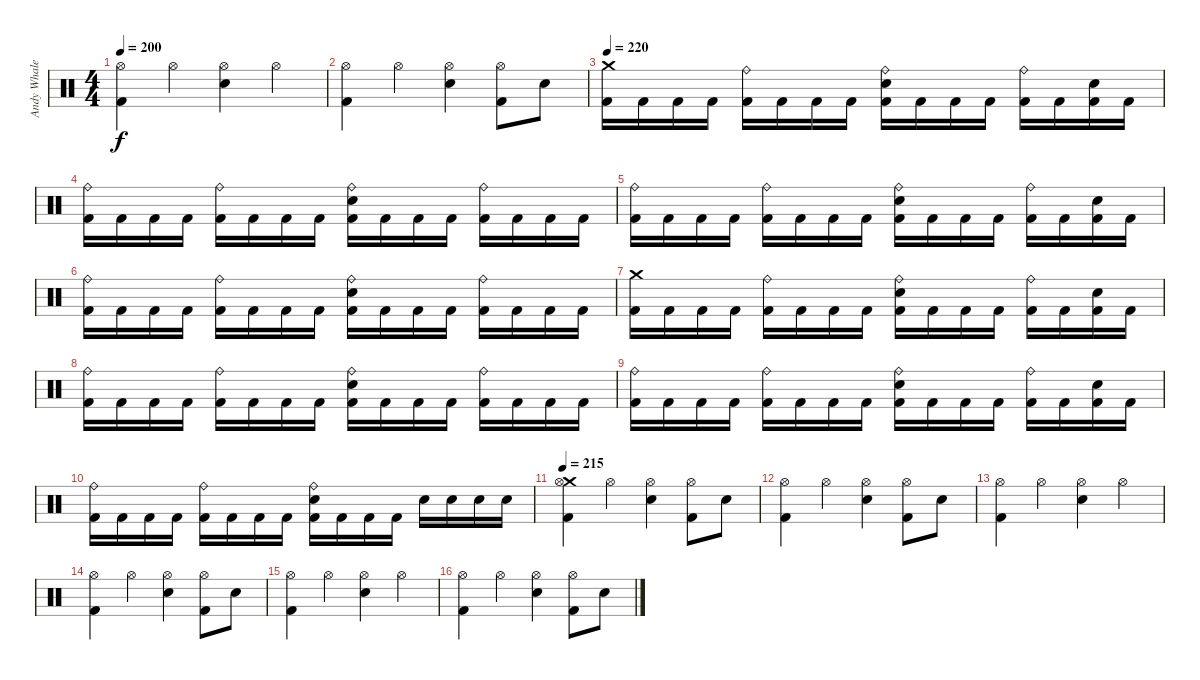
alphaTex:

\track ("Andy Whale" "Andy Whale") {instrument percussion}
\staff {score}
\articulation defaults
\ts (4 4)
\tempo 200
\clef neutral
\ks c
("Hi-Hat (open)" "Kick (hit) 2").4{dy f} "Hi-Hat (open)".4 ("Hi-Hat (open)" "Electric Snare (hit)").4 "Hi-Hat (open)".4 |
("Hi-Hat (open)" "Kick (hit) 2").4 "Hi-Hat (open)".4 ("Hi-Hat (open)" "Electric Snare (hit)").4 ("Hi-Hat (open)" "Kick (hit) 2").8 "Electric Snare (hit)".8 |
\tempo 220
("Crash medium (hit)" "Kick (hit) 2").16 "Kick (hit) 2".16 "Kick (hit) 2".16 "Kick (hit) 2".16 ("Ride (bell)" "Kick (hit) 2").16 "Kick (hit) 2".16 "Kick (hit) 2".16 "Kick (hit) 2".16 ("Ride (bell)" "Electric Snare (hit)" "Kick (hit) 2").16 "Kick (hit) 2".16 "Kick (hit) 2".16 "Kick (hit) 2".16 ("Ride (bell)" "Kick (hit) 2").16 "Kick (hit) 2".16 ("Electric Snare (hit)" "Kick (hit) 2").16 "Kick (hit) 2".16 |
("Ride (bell)" "Kick (hit) 2").16 "Kick (hit) 2".16 "Kick (hit) 2".16 "Kick (hit) 2".16 ("Ride (bell)" "Kick (hit) 2").16 "Kick (hit) 2".16 "Kick (hit) 2".16 "Kick (hit) 2".16 ("Ride (bell)" "Electric Snare (hit)" "Kick (hit) 2").16 "Kick (hit) 2".16 "Kick (hit) 2".16 "Kick (hit) 2".16 ("Ride (bell)" "Kick (hit) 2").16 "Kick (hit) 2".16 "Kick (hit) 2".16 "Kick (hit) 2".16 |
("Ride (bell)" "Kick (hit) 2").16 "Kick (hit) 2".16 "Kick (hit) 2".16 "Kick (hit) 2".16 ("Ride (bell)" "Kick (hit) 2").16 "Kick (hit) 2".16 "Kick (hit) 2".16 "Kick (hit) 2".16 ("Ride (bell)" "Electric Snare (hit)" "Kick (hit) 2").16 "Kick (hit) 2".16 "Kick (hit) 2".16 "Kick (hit) 2".16 ("Ride (bell)" "Kick (hit) 2").16 "Kick (hit) 2".16 ("Electric Snare (hit)" "Kick (hit) 2").16 "Kick (hit) 2".16 |
("Ride (bell)" "Kick (hit) 2").16 "Kick (hit) 2".16 "Kick (hit) 2".16 "Kick (hit) 2".16 ("Ride (bell)" "Kick (hit) 2").16 "Kick (hit) 2".16 "Kick (hit) 2".16 "Kick (hit) 2".16 ("Ride (bell)" "Electric Snare (hit)" "Kick (hit) 2").16 "Kick (hit) 2".16 "Kick (hit) 2".16 "Kick (hit) 2".16 ("Ride (bell)" "Kick (hit) 2").16 "Kick (hit) 2".16 "Kick (hit) 2".16 "Kick (hit) 2".16 |
("Crash medium (hit)" "Kick (hit) 2").16 "Kick (hit) 2".16 "Kick (hit) 2".16 "Kick (hit) 2".16 ("Ride (bell)" "Kick (hit) 2").16 "Kick (hit) 2".16 "Kick (hit) 2".16 "Kick (hit) 2".16 ("Ride (bell)" "Electric Snare (hit)" "Kick (hit) 2").16 "Kick (hit) 2".16 "Kick (hit) 2".16 "Kick (hit) 2".16 ("Ride (bell)" "Kick (hit) 2").16 "Kick (hit) 2".16 ("Electric Snare (hit)" "Kick (hit) 2").16 "Kick (hit) 2".16 |
("Ride (bell)" "Kick (hit) 2").16 "Kick (hit) 2".16 "Kick (hit) 2".16 "Kick (hit) 2".16 ("Ride (bell)" "Kick (hit) 2").16 "Kick (hit) 2".16 "Kick (hit) 2".16 "Kick (hit) 2".16 ("Ride (bell)" "Electric Snare (hit)" "Kick (hit) 2").16 "Kick (hit) 2".16 "Kick (hit) 2".16 "Kick (hit) 2".16 ("Ride (bell)" "Kick (hit) 2").16 "Kick (hit) 2".16 "Kick (hit) 2".16 "Kick (hit) 2".16 |
("Ride (bell)" "Kick (hit) 2").16 "Kick (hit) 2".16 "Kick (hit) 2".16 "Kick (hit) 2".16 ("Ride (bell)" "Kick (hit) 2").16 "Kick (hit) 2".16 "Kick (hit) 2".16 "Kick (hit) 2".16 ("Ride (bell)" "Electric Snare (hit)" "Kick (hit) 2").16 "Kick (hit) 2".16 "Kick (hit) 2".16 "Kick (hit) 2".16 ("Ride (bell)" "Kick (hit) 2").16 "Kick (hit) 2".16 ("Electric Snare (hit)" "Kick (hit) 2").16 "Kick (hit) 2".16 |
("Ride (bell)" "Kick (hit) 2").16 "Kick (hit) 2".16 "Kick (hit) 2".16 "Kick (hit) 2".16 ("Ride (bell)" "Kick (hit) 2").16 "Kick (hit) 2".16 "Kick (hit) 2".16 "Kick (hit) 2".16 ("Ride (bell)" "Electric Snare (hit)" "Kick (hit) 2").16 "Kick (hit) 2".16 "Kick (hit) 2".16 "Kick (hit) 2".16 "Electric Snare (hit)".16 "Electric Snare (hit)".16 "Electric Snare (hit)".16 "Electric Snare (hit)".16 |
\tempo 215
("Crash medium (hit)" "Hi-Hat (open)" "Kick (hit) 2").4 "Hi-Hat (open)".4 ("Hi-Hat (open)" "Electric Snare (hit)").4 ("Hi-Hat (open)" "Kick (hit) 2").8 "Electric Snare (hit)".8 |
("Hi-Hat (open)" "Kick (hit) 2").4 "Hi-Hat (open)".4 ("Hi-Hat (open)" "Electric Snare (hit)").4 ("Hi-Hat (open)" "Kick (hit) 2").8 "Electric Snare (hit)".8 |
("Hi-Hat (open)" "Kick (hit) 2").4 "Hi-Hat (open)".4 ("Hi-Hat (open)" "Electric Snare (hit)").4 "Hi-Hat (open)".4 |
("Hi-Hat (open)" "Kick (hit) 2").4 "Hi-Hat (open)".4 ("Hi-Hat (open)" "Electric Snare (hit)").4 ("Hi-Hat (open)" "Kick (hit) 2").8 "Electric Snare (hit)".8 |
("Hi-Hat (open)" "Kick (hit) 2").4 "Hi-Hat (open)".4 ("Hi-Hat (open)" "Electric Snare (hit)").4 "Hi-Hat (open)".4 |
("Hi-Hat (open)" "Kick (hit) 2").4 "Hi-Hat (open)".4 ("Hi-Hat (open)" "Electric Snare (hit)").4 ("Hi-Hat (open)" "Kick (hit) 2").8 "Electric Snare (hit)".8
